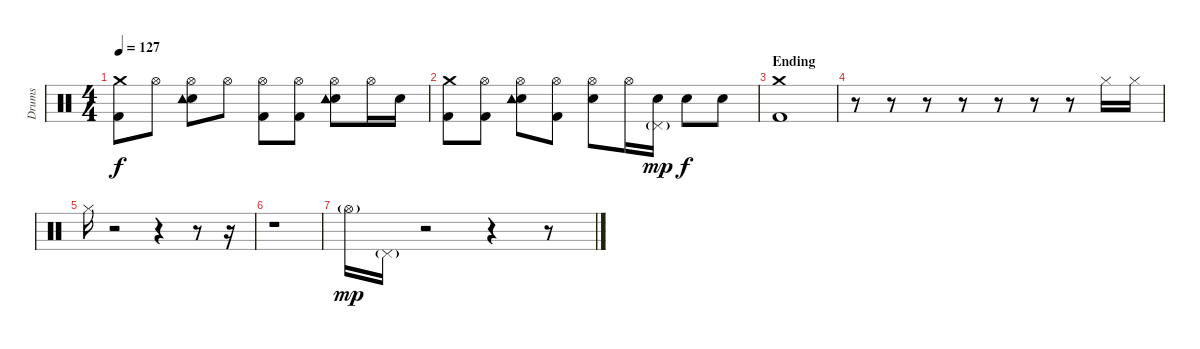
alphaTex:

\track ("Drums" "Drums") {instrument percussion}
\staff {score}
\articulation defaults
\ts (4 4)
\tempo 127
\clef neutral
\ks c
("Crash medium (hit)" "Kick (hit) 2").8{dy f} "Hi-Hat (open)".8 ("Hi-Hat (open)" "Snare (hit) 2" "Tambourine (hit)").8 "Hi-Hat (open)".8 ("Hi-Hat (open)" "Kick (hit) 2").8 ("Hi-Hat (open)" "Kick (hit) 2").8 ("Hi-Hat (open)" "Snare (hit) 2" "Tambourine (hit)").8 "Hi-Hat (open)".16 "Snare (hit) 2".16 |
("Crash medium (hit)" "Kick (hit) 2").8 ("Hi-Hat (open)" "Kick (hit) 2").8 ("Hi-Hat (open)" "Snare (hit) 2" "Tambourine (hit)").8 ("Hi-Hat (open)" "Kick (hit) 2").8 ("Hi-Hat (open)" "Snare (hit) 2").8 "Hi-Hat (open)".16 ("Pedal Hi-Hat (hit)"{g} "Snare (hit) 2").16{dy mp} "Snare (hit) 2".8{dy f} "Snare (hit) 2".8 |
\section ("" "Ending")
("Crash medium (hit)" "Kick (hit) 2").1 |
r.8 r.8 r.8 r.8 r.8 r.8 r.8 "Hi-Hat (closed)".16 "Hi-Hat (closed)".16 |
"Hi-Hat (closed)".16 r.2 r.4 r.8 r.16 |
r.1 |
"Hi-Hat (open)"{g}.16{dy mp} "Pedal Hi-Hat (hit)"{g}.16 r.2 r.4 r.8
